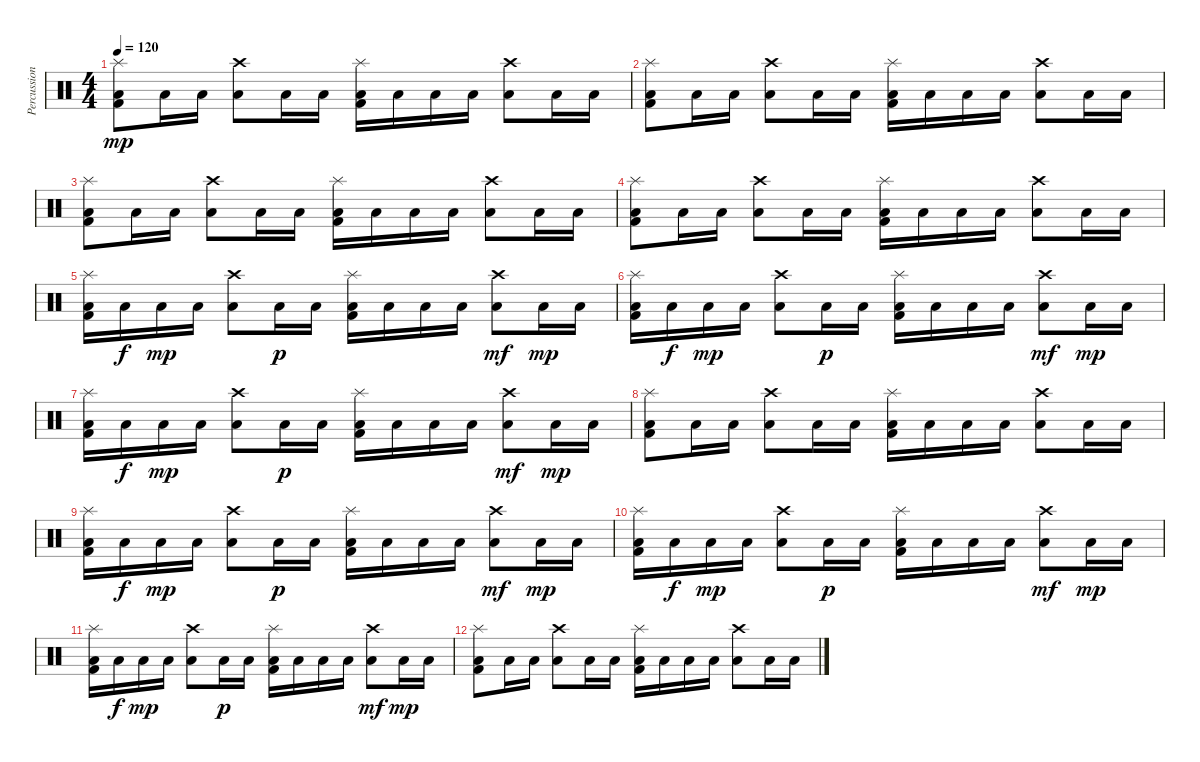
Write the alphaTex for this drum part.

\track ("Percussions" "Percussion") {instrument percussion}
\staff {score}
\articulation defaults
\ts (4 4)
\tempo 120
\clef neutral
\ks c
("Splash (hit)" "Low Tom (hit)" "Kick (hit) 2").8{dy mp} "Low Tom (hit)".16 "Low Tom (hit)".16 ("Crash high (hit)" "Low Tom (hit)").8 "Low Tom (hit)".16 "Low Tom (hit)".16 ("Splash (hit)" "Low Tom (hit)" "Kick (hit) 2").16 "Low Tom (hit)".16 "Low Tom (hit)".16 "Low Tom (hit)".16 ("Crash high (hit)" "Low Tom (hit)").8 "Low Tom (hit)".16 "Low Tom (hit)".16 |
("Splash (hit)" "Low Tom (hit)" "Kick (hit) 2").8 "Low Tom (hit)".16 "Low Tom (hit)".16 ("Crash high (hit)" "Low Tom (hit)").8 "Low Tom (hit)".16 "Low Tom (hit)".16 ("Splash (hit)" "Low Tom (hit)" "Kick (hit) 2").16 "Low Tom (hit)".16 "Low Tom (hit)".16 "Low Tom (hit)".16 ("Crash high (hit)" "Low Tom (hit)").8 "Low Tom (hit)".16 "Low Tom (hit)".16 |
("Splash (hit)" "Low Tom (hit)" "Kick (hit) 2").8 "Low Tom (hit)".16 "Low Tom (hit)".16 ("Crash high (hit)" "Low Tom (hit)").8 "Low Tom (hit)".16 "Low Tom (hit)".16 ("Splash (hit)" "Low Tom (hit)" "Kick (hit) 2").16 "Low Tom (hit)".16 "Low Tom (hit)".16 "Low Tom (hit)".16 ("Crash high (hit)" "Low Tom (hit)").8 "Low Tom (hit)".16 "Low Tom (hit)".16 |
("Splash (hit)" "Low Tom (hit)" "Kick (hit) 2").8 "Low Tom (hit)".16 "Low Tom (hit)".16 ("Crash high (hit)" "Low Tom (hit)").8 "Low Tom (hit)".16 "Low Tom (hit)".16 ("Splash (hit)" "Low Tom (hit)" "Kick (hit) 2").16 "Low Tom (hit)".16 "Low Tom (hit)".16 "Low Tom (hit)".16 ("Crash high (hit)" "Low Tom (hit)").8 "Low Tom (hit)".16 "Low Tom (hit)".16 |
("Splash (hit)" "Low Tom (hit)" "Kick (hit) 2").16 "Low Tom (hit)".16{dy f} "Low Tom (hit)".16{dy mp} "Low Tom (hit)".16 ("Crash high (hit)" "Low Tom (hit)").8 "Low Tom (hit)".16{dy p} "Low Tom (hit)".16 ("Splash (hit)" "Low Tom (hit)" "Kick (hit) 2").16 "Low Tom (hit)".16 "Low Tom (hit)".16 "Low Tom (hit)".16 ("Crash high (hit)" "Low Tom (hit)").8{dy mf} "Low Tom (hit)".16{dy mp} "Low Tom (hit)".16 |
("Splash (hit)" "Low Tom (hit)" "Kick (hit) 2").16 "Low Tom (hit)".16{dy f} "Low Tom (hit)".16{dy mp} "Low Tom (hit)".16 ("Crash high (hit)" "Low Tom (hit)").8 "Low Tom (hit)".16{dy p} "Low Tom (hit)".16 ("Splash (hit)" "Low Tom (hit)" "Kick (hit) 2").16 "Low Tom (hit)".16 "Low Tom (hit)".16 "Low Tom (hit)".16 ("Crash high (hit)" "Low Tom (hit)").8{dy mf} "Low Tom (hit)".16{dy mp} "Low Tom (hit)".16 |
("Splash (hit)" "Low Tom (hit)" "Kick (hit) 2").16 "Low Tom (hit)".16{dy f} "Low Tom (hit)".16{dy mp} "Low Tom (hit)".16 ("Crash high (hit)" "Low Tom (hit)").8 "Low Tom (hit)".16{dy p} "Low Tom (hit)".16 ("Splash (hit)" "Low Tom (hit)" "Kick (hit) 2").16 "Low Tom (hit)".16 "Low Tom (hit)".16 "Low Tom (hit)".16 ("Crash high (hit)" "Low Tom (hit)").8{dy mf} "Low Tom (hit)".16{dy mp} "Low Tom (hit)".16 |
("Splash (hit)" "Low Tom (hit)" "Kick (hit) 2").8 "Low Tom (hit)".16 "Low Tom (hit)".16 ("Crash high (hit)" "Low Tom (hit)").8 "Low Tom (hit)".16 "Low Tom (hit)".16 ("Splash (hit)" "Low Tom (hit)" "Kick (hit) 2").16 "Low Tom (hit)".16 "Low Tom (hit)".16 "Low Tom (hit)".16 ("Crash high (hit)" "Low Tom (hit)").8 "Low Tom (hit)".16 "Low Tom (hit)".16 |
("Splash (hit)" "Low Tom (hit)" "Kick (hit) 2").16 "Low Tom (hit)".16{dy f} "Low Tom (hit)".16{dy mp} "Low Tom (hit)".16 ("Crash high (hit)" "Low Tom (hit)").8 "Low Tom (hit)".16{dy p} "Low Tom (hit)".16 ("Splash (hit)" "Low Tom (hit)" "Kick (hit) 2").16 "Low Tom (hit)".16 "Low Tom (hit)".16 "Low Tom (hit)".16 ("Crash high (hit)" "Low Tom (hit)").8{dy mf} "Low Tom (hit)".16{dy mp} "Low Tom (hit)".16 |
("Splash (hit)" "Low Tom (hit)" "Kick (hit) 2").16 "Low Tom (hit)".16{dy f} "Low Tom (hit)".16{dy mp} "Low Tom (hit)".16 ("Crash high (hit)" "Low Tom (hit)").8 "Low Tom (hit)".16{dy p} "Low Tom (hit)".16 ("Splash (hit)" "Low Tom (hit)" "Kick (hit) 2").16 "Low Tom (hit)".16 "Low Tom (hit)".16 "Low Tom (hit)".16 ("Crash high (hit)" "Low Tom (hit)").8{dy mf} "Low Tom (hit)".16{dy mp} "Low Tom (hit)".16 |
("Splash (hit)" "Low Tom (hit)" "Kick (hit) 2").16{volume 0} "Low Tom (hit)".16{dy f} "Low Tom (hit)".16{dy mp} "Low Tom (hit)".16 ("Crash high (hit)" "Low Tom (hit)").8 "Low Tom (hit)".16{dy p} "Low Tom (hit)".16 ("Splash (hit)" "Low Tom (hit)" "Kick (hit) 2").16 "Low Tom (hit)".16 "Low Tom (hit)".16 "Low Tom (hit)".16 ("Crash high (hit)" "Low Tom (hit)").8{dy mf} "Low Tom (hit)".16{dy mp} "Low Tom (hit)".16 |
("Splash (hit)" "Low Tom (hit)" "Kick (hit) 2").8 "Low Tom (hit)".16 "Low Tom (hit)".16 ("Crash high (hit)" "Low Tom (hit)").8 "Low Tom (hit)".16 "Low Tom (hit)".16 ("Splash (hit)" "Low Tom (hit)" "Kick (hit) 2").16 "Low Tom (hit)".16 "Low Tom (hit)".16 "Low Tom (hit)".16 ("Crash high (hit)" "Low Tom (hit)").8 "Low Tom (hit)".16 "Low Tom (hit)".16
